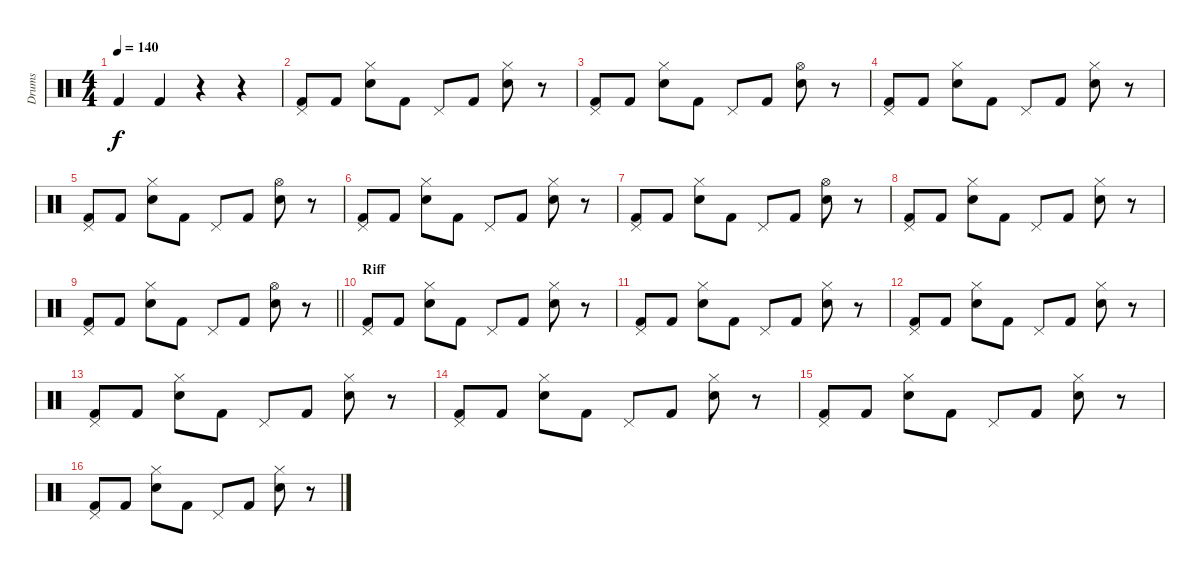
\track ("Drums" "Drums") {instrument percussion bank 127}
\staff {score}
\articulation defaults
\ts (4 4)
\tempo 140
\clef neutral
\ks c "Kick (hit) 2".4{dy f} "Kick (hit) 2".4
r.4 r.4 |
("Pedal Hi-Hat (hit)" "Kick (hit) 2").8 "Kick (hit) 2".8 ("Hi-Hat (closed)" "Electric Snare (hit)").8 "Kick (hit) 2".8 "Pedal Hi-Hat (hit)".8 "Kick (hit) 2".8 ("Hi-Hat (closed)" "Electric Snare (hit)").8 r.8 |
("Pedal Hi-Hat (hit)" "Kick (hit) 2").8 "Kick (hit) 2".8 ("Hi-Hat (closed)" "Electric Snare (hit)").8 "Kick (hit) 2".8 "Pedal Hi-Hat (hit)".8 "Kick (hit) 2".8 ("Hi-Hat (open)" "Electric Snare (hit)").8 r.8 |
("Pedal Hi-Hat (hit)" "Kick (hit) 2").8 "Kick (hit) 2".8 ("Hi-Hat (closed)" "Electric Snare (hit)").8 "Kick (hit) 2".8 "Pedal Hi-Hat (hit)".8 "Kick (hit) 2".8 ("Hi-Hat (closed)" "Electric Snare (hit)").8 r.8 |
("Pedal Hi-Hat (hit)" "Kick (hit) 2").8 "Kick (hit) 2".8 ("Hi-Hat (closed)" "Electric Snare (hit)").8 "Kick (hit) 2".8 "Pedal Hi-Hat (hit)".8 "Kick (hit) 2".8 ("Hi-Hat (open)" "Electric Snare (hit)").8 r.8 |
("Pedal Hi-Hat (hit)" "Kick (hit) 2").8 "Kick (hit) 2".8 ("Hi-Hat (closed)" "Electric Snare (hit)").8 "Kick (hit) 2".8 "Pedal Hi-Hat (hit)".8 "Kick (hit) 2".8 ("Hi-Hat (closed)" "Electric Snare (hit)").8 r.8 |
("Pedal Hi-Hat (hit)" "Kick (hit) 2").8 "Kick (hit) 2".8 ("Hi-Hat (closed)" "Electric Snare (hit)").8 "Kick (hit) 2".8 "Pedal Hi-Hat (hit)".8 "Kick (hit) 2".8 ("Hi-Hat (open)" "Electric Snare (hit)").8 r.8 |
("Pedal Hi-Hat (hit)" "Kick (hit) 2").8 "Kick (hit) 2".8 ("Hi-Hat (closed)" "Electric Snare (hit)").8 "Kick (hit) 2".8 "Pedal Hi-Hat (hit)".8 "Kick (hit) 2".8 ("Hi-Hat (closed)" "Electric Snare (hit)").8 r.8 |
\barLineRight lightlight
("Pedal Hi-Hat (hit)" "Kick (hit) 2").8 "Kick (hit) 2".8 ("Hi-Hat (closed)" "Electric Snare (hit)").8 "Kick (hit) 2".8 "Pedal Hi-Hat (hit)".8 "Kick (hit) 2".8 ("Hi-Hat (open)" "Electric Snare (hit)").8 r.8 |
\section ("" "Riff")
("Pedal Hi-Hat (hit)" "Kick (hit) 2").8 "Kick (hit) 2".8 ("Hi-Hat (closed)" "Electric Snare (hit)").8 "Kick (hit) 2".8 "Pedal Hi-Hat (hit)".8 "Kick (hit) 2".8 ("Hi-Hat (closed)" "Electric Snare (hit)").8 r.8 |
("Pedal Hi-Hat (hit)" "Kick (hit) 2").8 "Kick (hit) 2".8 ("Hi-Hat (closed)" "Electric Snare (hit)").8 "Kick (hit) 2".8 "Pedal Hi-Hat (hit)".8 "Kick (hit) 2".8 ("Hi-Hat (closed)" "Electric Snare (hit)").8 r.8 |
("Pedal Hi-Hat (hit)" "Kick (hit) 2").8 "Kick (hit) 2".8 ("Hi-Hat (closed)" "Electric Snare (hit)").8 "Kick (hit) 2".8 "Pedal Hi-Hat (hit)".8 "Kick (hit) 2".8 ("Hi-Hat (closed)" "Electric Snare (hit)").8 r.8 |
("Pedal Hi-Hat (hit)" "Kick (hit) 2").8 "Kick (hit) 2".8 ("Hi-Hat (closed)" "Electric Snare (hit)").8 "Kick (hit) 2".8 "Pedal Hi-Hat (hit)".8 "Kick (hit) 2".8 ("Hi-Hat (closed)" "Electric Snare (hit)").8 r.8 |
("Pedal Hi-Hat (hit)" "Kick (hit) 2").8 "Kick (hit) 2".8 ("Hi-Hat (closed)" "Electric Snare (hit)").8 "Kick (hit) 2".8 "Pedal Hi-Hat (hit)".8 "Kick (hit) 2".8 ("Hi-Hat (closed)" "Electric Snare (hit)").8 r.8 |
("Pedal Hi-Hat (hit)" "Kick (hit) 2").8 "Kick (hit) 2".8 ("Hi-Hat (closed)" "Electric Snare (hit)").8 "Kick (hit) 2".8 "Pedal Hi-Hat (hit)".8 "Kick (hit) 2".8 ("Hi-Hat (closed)" "Electric Snare (hit)").8 r.8 |
("Pedal Hi-Hat (hit)" "Kick (hit) 2").8 "Kick (hit) 2".8 ("Hi-Hat (closed)" "Electric Snare (hit)").8 "Kick (hit) 2".8 "Pedal Hi-Hat (hit)".8 "Kick (hit) 2".8 ("Hi-Hat (closed)" "Electric Snare (hit)").8 r.8
